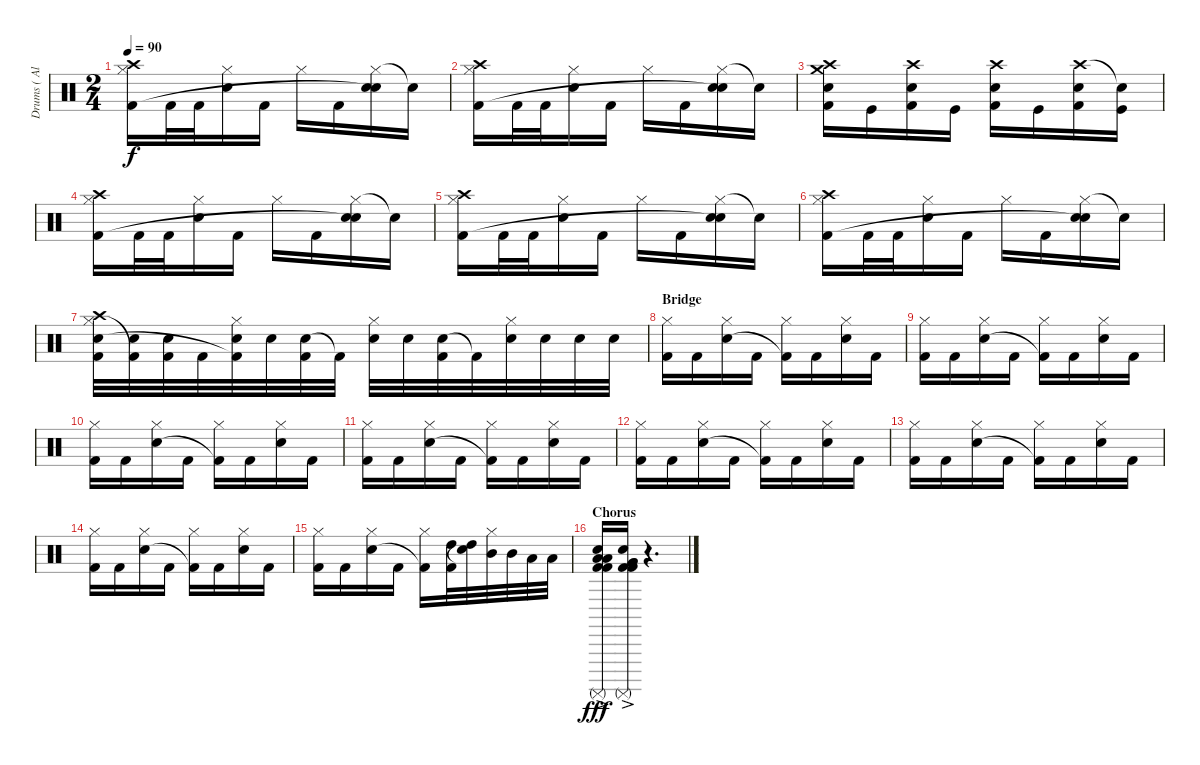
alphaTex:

\track ("Drums ( Alex Holzwarth)" "Drums ( Al") {instrument percussion}
\staff {score}
\articulation defaults
\ts (2 4)
\tempo 90
\clef neutral
\ks c
("Crash high (hit)" "Hi-Hat (closed)" "Kick (hit) 2").16{dy f} "Kick (hit) 2".32 "Kick (hit) 2".32 ("Hi-Hat (closed)" "Electric Snare (hit)").16 "Kick (hit) 2".16 "Hi-Hat (closed)".16 "Kick (hit) 2".16 ("Hi-Hat (closed)" "Electric Snare (hit)" "Snare (hit)"{t}).16 "Snare (hit)"{t}.16 |
("Crash high (hit)" "Hi-Hat (closed)" "Kick (hit) 2").16 "Kick (hit) 2".32 "Kick (hit) 2".32 ("Hi-Hat (closed)" "Electric Snare (hit)").16 "Kick (hit) 2".16 "Hi-Hat (closed)".16 "Kick (hit) 2".16 ("Hi-Hat (closed)" "Electric Snare (hit)" "Snare (hit)"{t}).16 "Snare (hit)"{t}.16 |
("Crash high (hit)" "Crash medium (hit)" "Snare (hit) 2" "Kick (hit) 2").16 "Kick (hit)".16 ("Crash high (hit)" "Snare (hit) 2" "Kick (hit) 2").16 "Kick (hit)".16 ("Crash high (hit)" "Snare (hit) 2" "Kick (hit) 2").16 "Kick (hit)".16 ("Crash high (hit)" "Snare (hit) 2" "Kick (hit) 2").16 ("Snare (hit)"{t} "Kick (hit)").16 |
("Crash high (hit)" "Hi-Hat (closed)" "Kick (hit) 2").16 "Kick (hit) 2".32 "Kick (hit) 2".32 ("Hi-Hat (closed)" "Electric Snare (hit)").16 "Kick (hit) 2".16 "Hi-Hat (closed)".16 "Kick (hit) 2".16 ("Hi-Hat (closed)" "Electric Snare (hit)" "Snare (hit)"{t}).16 "Snare (hit)"{t}.16 |
("Crash high (hit)" "Hi-Hat (closed)" "Kick (hit) 2").16 "Kick (hit) 2".32 "Kick (hit) 2".32 ("Hi-Hat (closed)" "Electric Snare (hit)").16 "Kick (hit) 2".16 "Hi-Hat (closed)".16 "Kick (hit) 2".16 ("Hi-Hat (closed)" "Electric Snare (hit)" "Snare (hit)"{t}).16 "Snare (hit)"{t}.16 |
("Crash high (hit)" "Hi-Hat (closed)" "Kick (hit) 2").16 "Kick (hit) 2".32 "Kick (hit) 2".32 ("Hi-Hat (closed)" "Electric Snare (hit)").16 "Kick (hit) 2".16 "Hi-Hat (closed)".16 "Kick (hit) 2".16 ("Hi-Hat (closed)" "Electric Snare (hit)" "Snare (hit)"{t}).16 "Snare (hit)"{t}.16 |
("Crash high (hit)" "Hi-Hat (closed)" "Electric Snare (hit)" "Kick (hit) 2").32 ("Electric Snare (hit)" "Kick (hit) 2"{t}).32 ("Electric Snare (hit)" "Kick (hit) 2").32 "Kick (hit) 2".32 ("Hi-Hat (closed)" "Electric Snare (hit)" "Kick (hit) 2"{t}).32 "Electric Snare (hit)".32 ("Electric Snare (hit)" "Kick (hit) 2").32 "Kick (hit) 2"{t}.32 ("Hi-Hat (closed)" "Electric Snare (hit)").32 "Electric Snare (hit)".32 ("Electric Snare (hit)" "Kick (hit) 2").32 "Kick (hit) 2"{t}.32 ("Hi-Hat (closed)" "Electric Snare (hit)").32 "Electric Snare (hit)".32 "Electric Snare (hit)".32 "Electric Snare (hit)".32 |
\section ("" "Bridge")
("Hi-Hat (closed)" "Kick (hit) 2").16 "Kick (hit) 2".16 ("Hi-Hat (closed)" "Electric Snare (hit)").16 "Kick (hit) 2".16 ("Hi-Hat (closed)" "Kick (hit) 2"{t}).16 "Kick (hit) 2".16 ("Hi-Hat (closed)" "Electric Snare (hit)").16 "Kick (hit) 2".16 |
("Hi-Hat (closed)" "Kick (hit) 2").16 "Kick (hit) 2".16 ("Hi-Hat (closed)" "Electric Snare (hit)").16 "Kick (hit) 2".16 ("Hi-Hat (closed)" "Kick (hit) 2"{t}).16 "Kick (hit) 2".16 ("Hi-Hat (closed)" "Electric Snare (hit)").16 "Kick (hit) 2".16 |
("Hi-Hat (closed)" "Kick (hit) 2").16 "Kick (hit) 2".16 ("Hi-Hat (closed)" "Electric Snare (hit)").16 "Kick (hit) 2".16 ("Hi-Hat (closed)" "Kick (hit) 2"{t}).16 "Kick (hit) 2".16 ("Hi-Hat (closed)" "Electric Snare (hit)").16 "Kick (hit) 2".16 |
("Hi-Hat (closed)" "Kick (hit) 2").16 "Kick (hit) 2".16 ("Hi-Hat (closed)" "Electric Snare (hit)").16 "Kick (hit) 2".16 ("Hi-Hat (closed)" "Kick (hit) 2"{t}).16 "Kick (hit) 2".16 ("Hi-Hat (closed)" "Electric Snare (hit)").16 "Kick (hit) 2".16 |
("Hi-Hat (closed)" "Kick (hit) 2").16 "Kick (hit) 2".16 ("Hi-Hat (closed)" "Electric Snare (hit)").16 "Kick (hit) 2".16 ("Hi-Hat (closed)" "Kick (hit) 2"{t}).16 "Kick (hit) 2".16 ("Hi-Hat (closed)" "Electric Snare (hit)").16 "Kick (hit) 2".16 |
("Hi-Hat (closed)" "Kick (hit) 2").16 "Kick (hit) 2".16 ("Hi-Hat (closed)" "Electric Snare (hit)").16 "Kick (hit) 2".16 ("Hi-Hat (closed)" "Kick (hit) 2"{t}).16 "Kick (hit) 2".16 ("Hi-Hat (closed)" "Electric Snare (hit)").16 "Kick (hit) 2".16 |
("Hi-Hat (closed)" "Kick (hit) 2").16 "Kick (hit) 2".16 ("Hi-Hat (closed)" "Electric Snare (hit)").16 "Kick (hit) 2".16 ("Hi-Hat (closed)" "Kick (hit) 2"{t}).16 "Kick (hit) 2".16 ("Hi-Hat (closed)" "Electric Snare (hit)").16 "Kick (hit) 2".16 |
("Hi-Hat (closed)" "Kick (hit) 2").16 "Kick (hit) 2".16 ("Hi-Hat (closed)" "Electric Snare (hit)").16 "Kick (hit) 2".16 ("Hi-Hat (closed)" "Kick (hit) 2"{t}).16 ("High Tom (hit)" "Kick (hit) 2").32 ("High Tom (hit)" "Snare (hit)"{t}).32 ("Hi-Hat (closed)" "Mid Tom (hit)").32 "Mid Tom (hit)".32 "Low Tom (hit)".32 "Low Tom (hit)".32 |
\section ("" "Chorus")
("Surdo (mute)"{ac} "Low Tom (hit)"{ac} "Low Tom (hit)"{ac} "Snare (hit) 2" "Kick (hit) 2"{ac} "Kick (hit) 2"{ac}).16{dy fff} ("Surdo (mute)"{ac} "Very Low Tom (hit)"{ac} "Very Low Tom (hit)"{ac} "Snare (hit) 2" "Kick (hit) 2"{ac} "Kick (hit) 2"{ac}).16 r.4{d}
